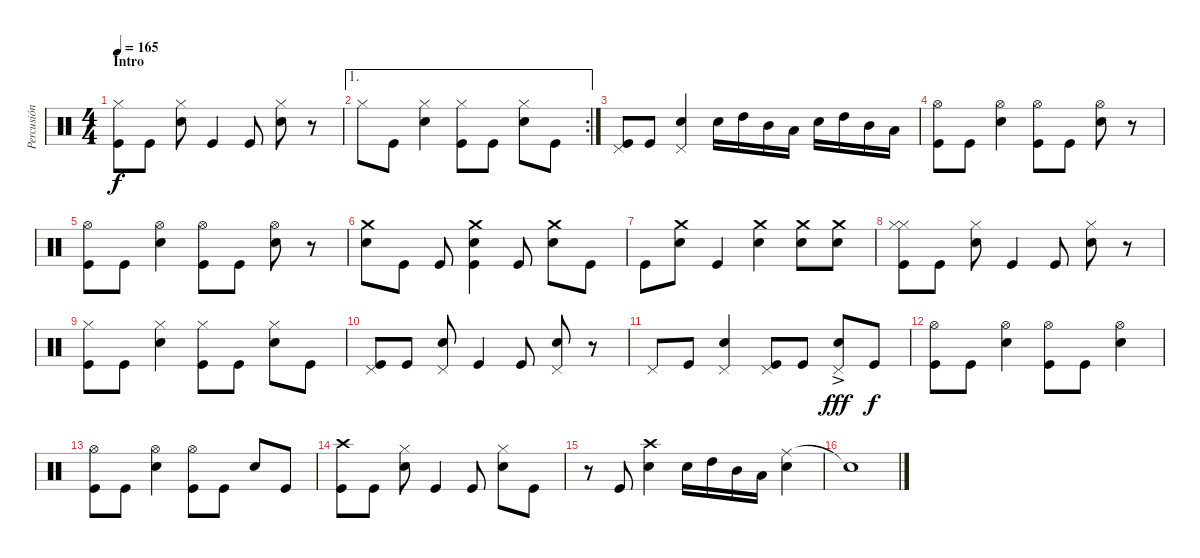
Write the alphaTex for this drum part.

\track ("Percusión" "Percusión") {instrument percussion}
\staff {score}
\articulation defaults
\ts (4 4)
\section ("" "Intro")
\tempo 165
\clef neutral
\ks c
("Hi-Hat (closed)" "Kick (hit)").8{dy f} "Kick (hit)".8 ("Hi-Hat (closed)" "Electric Snare (hit)").8 "Kick (hit)".4 "Kick (hit)".8 ("Hi-Hat (closed)" "Electric Snare (hit)").8 r.8 |
\ae 1
\rc 2 "Hi-Hat (closed)".8 "Kick (hit)".8
("Hi-Hat (closed)" "Electric Snare (hit)").4 ("Hi-Hat (closed)" "Kick (hit)").8 "Kick (hit)".8 ("Hi-Hat (closed)" "Electric Snare (hit)").8 "Kick (hit)".8 |
("Pedal Hi-Hat (hit)" "Kick (hit)").8 "Kick (hit)".8 ("Pedal Hi-Hat (hit)" "Electric Snare (hit)").4 "Electric Snare (hit)".16 "High Tom (hit)".16 "Mid Tom (hit)".16 "Low Tom (hit)".16 "Electric Snare (hit)".16 "High Tom (hit)".16 "Mid Tom (hit)".16 "Low Tom (hit)".16 |
("Kick (hit)" "Hi-Hat (open)").8 "Kick (hit)".8 ("Electric Snare (hit)" "Hi-Hat (open)").4 ("Kick (hit)" "Hi-Hat (open)").8 "Kick (hit)".8 ("Electric Snare (hit)" "Hi-Hat (open)").8 r.8 |
("Kick (hit)" "Hi-Hat (open)").8 "Kick (hit)".8 ("Electric Snare (hit)" "Hi-Hat (open)").4 ("Kick (hit)" "Hi-Hat (open)").8 "Kick (hit)".8 ("Electric Snare (hit)" "Hi-Hat (open)").8 r.8 |
("Electric Snare (hit)" "Crash medium (hit)").8 "Kick (hit)".8 "Kick (hit)".8 ("Crash medium (hit)" "Kick (hit)" "Electric Snare (hit)").4 "Kick (hit)".8 ("Electric Snare (hit)" "Crash medium (hit)").8 "Kick (hit)".8 |
"Kick (hit)".8 ("Electric Snare (hit)" "Crash medium (hit)").8 "Kick (hit)".4 ("Electric Snare (hit)" "Crash medium (hit)").4 ("Electric Snare (hit)" "Crash medium (hit)").8 ("Electric Snare (hit)" "Crash medium (hit)").8 |
("Hi-Hat (closed)" "Kick (hit)" "Hi-Hat (closed)").8 "Kick (hit)".8 ("Hi-Hat (closed)" "Electric Snare (hit)").8 "Kick (hit)".4 "Kick (hit)".8 ("Hi-Hat (closed)" "Electric Snare (hit)").8 r.8 |
("Hi-Hat (closed)" "Kick (hit)").8 "Kick (hit)".8 ("Hi-Hat (closed)" "Electric Snare (hit)").4 ("Hi-Hat (closed)" "Kick (hit)").8 "Kick (hit)".8 ("Hi-Hat (closed)" "Electric Snare (hit)").8 "Kick (hit)".8 |
("Pedal Hi-Hat (hit)" "Kick (hit)").8 "Kick (hit)".8 ("Pedal Hi-Hat (hit)" "Electric Snare (hit)").8 "Kick (hit)".4 "Kick (hit)".8 ("Pedal Hi-Hat (hit)" "Electric Snare (hit)").8 r.8 |
"Pedal Hi-Hat (hit)".8 "Kick (hit)".8 ("Pedal Hi-Hat (hit)" "Electric Snare (hit)").4 ("Pedal Hi-Hat (hit)" "Kick (hit)").8 "Kick (hit)".8 ("Pedal Hi-Hat (hit)" "Electric Snare (hit)"{ac}).8{dy fff} "Kick (hit)".8{dy f} |
("Hi-Hat (open)" "Kick (hit)").8 "Kick (hit)".8 ("Hi-Hat (open)" "Electric Snare (hit)").4 ("Hi-Hat (open)" "Kick (hit)").8 "Kick (hit)".8 ("Hi-Hat (open)" "Electric Snare (hit)").4 |
("Hi-Hat (open)" "Kick (hit)").8 "Kick (hit)".8 ("Hi-Hat (open)" "Electric Snare (hit)").4 ("Hi-Hat (open)" "Kick (hit)").8 "Kick (hit)".8 "Electric Snare (hit)".8 "Kick (hit)".8 |
("Kick (hit)" "Crash high (hit)").8 "Kick (hit)".8 ("Hi-Hat (closed)" "Electric Snare (hit)").8 "Kick (hit)".4 "Kick (hit)".8 ("Hi-Hat (closed)" "Electric Snare (hit)").8 "Kick (hit)".8 |
r.8 "Kick (hit)".8 ("Electric Snare (hit)" "Crash high (hit)").4 "Electric Snare (hit)".16 "High Tom (hit)".16 "Mid Tom (hit)".16 "Low Tom (hit)".16 ("Ride (middle)" "Electric Snare (hit)").4 |
"Snare (hit)"{t}.1
